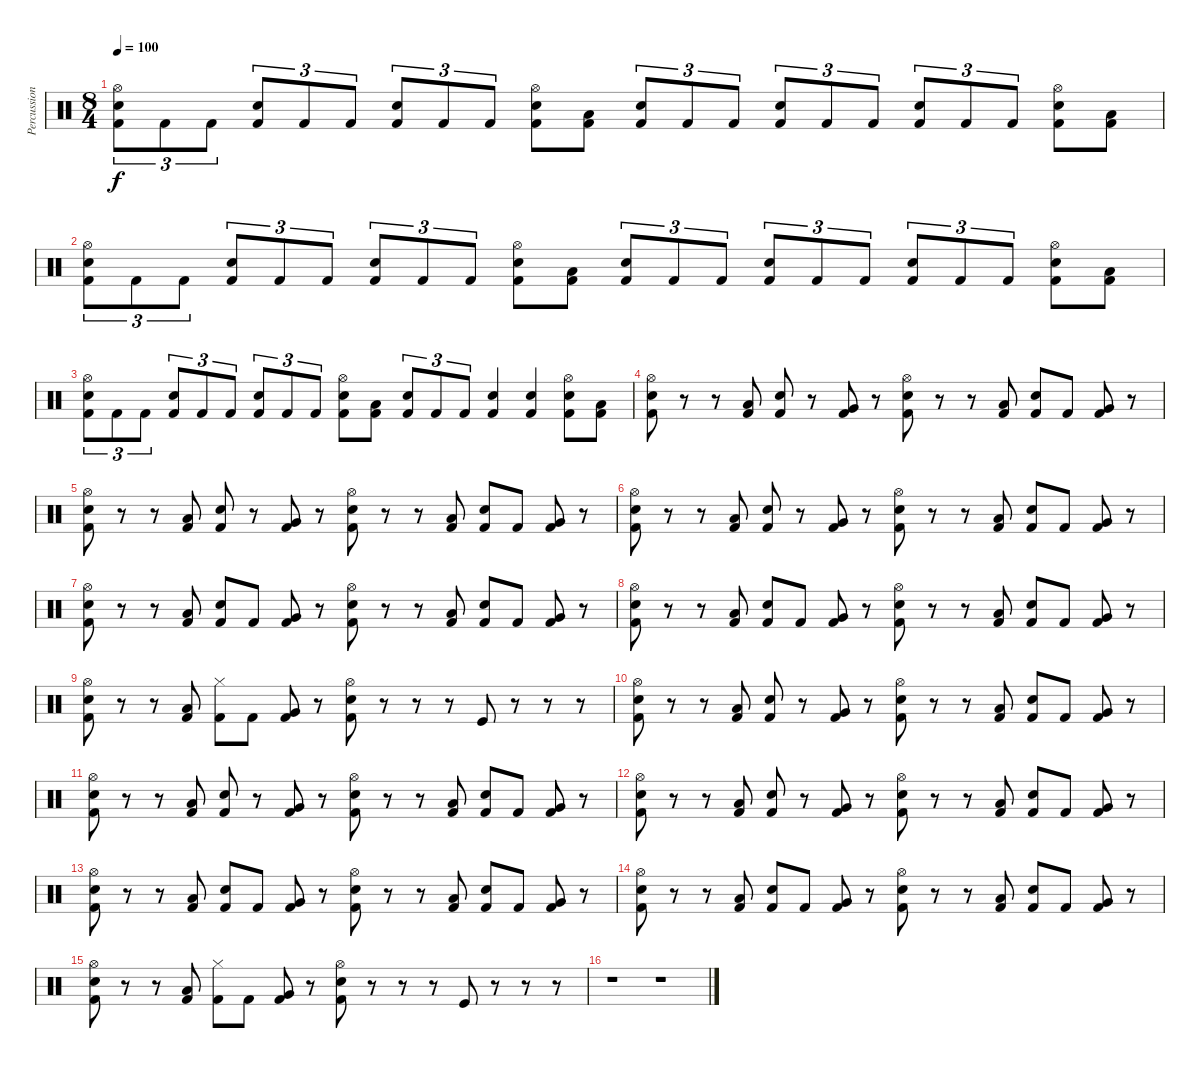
\track ("Percussions" "Percussion") {instrument percussion}
\staff {score}
\articulation defaults
\ts (8 4)
\tempo 100
\clef neutral
\ks c
("Hi-Hat (open)" "Electric Snare (hit)" "Kick (hit) 2").8{tu (3 2) dy f} "Kick (hit) 2".8{tu (3 2)} "Kick (hit) 2".8{tu (3 2)} ("Electric Snare (hit)" "Kick (hit) 2").8{tu (3 2)} "Kick (hit) 2".8{tu (3 2)} "Kick (hit) 2".8{tu (3 2)} ("Electric Snare (hit)" "Kick (hit) 2").8{tu (3 2)} "Kick (hit) 2".8{tu (3 2)} "Kick (hit) 2".8{tu (3 2)} ("Hi-Hat (open)" "Electric Snare (hit)" "Kick (hit) 2").8 ("Low Floor Tom (hit)" "Kick (hit) 2").8 ("Electric Snare (hit)" "Kick (hit) 2").8{tu (3 2)} "Kick (hit) 2".8{tu (3 2)} "Kick (hit) 2".8{tu (3 2)} ("Electric Snare (hit)" "Kick (hit) 2").8{tu (3 2)} "Kick (hit) 2".8{tu (3 2)} "Kick (hit) 2".8{tu (3 2)} ("Electric Snare (hit)" "Kick (hit) 2").8{tu (3 2)} "Kick (hit) 2".8{tu (3 2)} "Kick (hit) 2".8{tu (3 2)} ("Hi-Hat (open)" "Electric Snare (hit)" "Kick (hit) 2").8 ("Low Floor Tom (hit)" "Kick (hit) 2").8 |
("Hi-Hat (open)" "Electric Snare (hit)" "Kick (hit) 2").8{tu (3 2)} "Kick (hit) 2".8{tu (3 2)} "Kick (hit) 2".8{tu (3 2)} ("Electric Snare (hit)" "Kick (hit) 2").8{tu (3 2)} "Kick (hit) 2".8{tu (3 2)} "Kick (hit) 2".8{tu (3 2)} ("Electric Snare (hit)" "Kick (hit) 2").8{tu (3 2)} "Kick (hit) 2".8{tu (3 2)} "Kick (hit) 2".8{tu (3 2)} ("Hi-Hat (open)" "Electric Snare (hit)" "Kick (hit) 2").8 ("Low Floor Tom (hit)" "Kick (hit) 2").8 ("Electric Snare (hit)" "Kick (hit) 2").8{tu (3 2)} "Kick (hit) 2".8{tu (3 2)} "Kick (hit) 2".8{tu (3 2)} ("Electric Snare (hit)" "Kick (hit) 2").8{tu (3 2)} "Kick (hit) 2".8{tu (3 2)} "Kick (hit) 2".8{tu (3 2)} ("Electric Snare (hit)" "Kick (hit) 2").8{tu (3 2)} "Kick (hit) 2".8{tu (3 2)} "Kick (hit) 2".8{tu (3 2)} ("Hi-Hat (open)" "Electric Snare (hit)" "Kick (hit) 2").8 ("Low Floor Tom (hit)" "Kick (hit) 2").8 |
("Hi-Hat (open)" "Electric Snare (hit)" "Kick (hit) 2").8{tu (3 2)} "Kick (hit) 2".8{tu (3 2)} "Kick (hit) 2".8{tu (3 2)} ("Electric Snare (hit)" "Kick (hit) 2").8{tu (3 2)} "Kick (hit) 2".8{tu (3 2)} "Kick (hit) 2".8{tu (3 2)} ("Electric Snare (hit)" "Kick (hit) 2").8{tu (3 2)} "Kick (hit) 2".8{tu (3 2)} "Kick (hit) 2".8{tu (3 2)} ("Hi-Hat (open)" "Electric Snare (hit)" "Kick (hit) 2").8 ("Low Floor Tom (hit)" "Kick (hit) 2").8 ("Electric Snare (hit)" "Kick (hit) 2").8{tu (3 2)} "Kick (hit) 2".8{tu (3 2)} "Kick (hit) 2".8{tu (3 2)} ("Electric Snare (hit)" "Kick (hit) 2").4 ("Electric Snare (hit)" "Kick (hit) 2").4 ("Hi-Hat (open)" "Electric Snare (hit)" "Kick (hit) 2").8 ("Low Floor Tom (hit)" "Kick (hit) 2").8 |
("Hi-Hat (open)" "Electric Snare (hit)" "Kick (hit) 2").8 r.8 r.8 ("Low Floor Tom (hit)" "Kick (hit) 2").8 ("Electric Snare (hit)" "Kick (hit) 2").8 r.8 ("Very Low Tom (hit)" "Kick (hit) 2").8 r.8 ("Hi-Hat (open)" "Electric Snare (hit)" "Kick (hit) 2").8 r.8 r.8 ("Low Floor Tom (hit)" "Kick (hit) 2").8 ("Electric Snare (hit)" "Kick (hit) 2").8 "Kick (hit) 2".8 ("Very Low Tom (hit)" "Kick (hit) 2").8 r.8 |
("Hi-Hat (open)" "Electric Snare (hit)" "Kick (hit) 2").8 r.8 r.8 ("Low Floor Tom (hit)" "Kick (hit) 2").8 ("Electric Snare (hit)" "Kick (hit) 2").8 r.8 ("Very Low Tom (hit)" "Kick (hit) 2").8 r.8 ("Hi-Hat (open)" "Electric Snare (hit)" "Kick (hit) 2").8 r.8 r.8 ("Low Floor Tom (hit)" "Kick (hit) 2").8 ("Electric Snare (hit)" "Kick (hit) 2").8 "Kick (hit) 2".8 ("Very Low Tom (hit)" "Kick (hit) 2").8 r.8 |
("Hi-Hat (open)" "Electric Snare (hit)" "Kick (hit) 2").8 r.8 r.8 ("Low Floor Tom (hit)" "Kick (hit) 2").8 ("Electric Snare (hit)" "Kick (hit) 2").8 r.8 ("Very Low Tom (hit)" "Kick (hit) 2").8 r.8 ("Hi-Hat (open)" "Electric Snare (hit)" "Kick (hit) 2").8 r.8 r.8 ("Low Floor Tom (hit)" "Kick (hit) 2").8 ("Electric Snare (hit)" "Kick (hit) 2").8 "Kick (hit) 2".8 ("Very Low Tom (hit)" "Kick (hit) 2").8 r.8 |
("Hi-Hat (open)" "Electric Snare (hit)" "Kick (hit) 2").8 r.8 r.8 ("Low Floor Tom (hit)" "Kick (hit) 2").8 ("Electric Snare (hit)" "Kick (hit) 2").8 "Kick (hit) 2".8 ("Very Low Tom (hit)" "Kick (hit) 2").8 r.8 ("Hi-Hat (open)" "Electric Snare (hit)" "Kick (hit) 2").8 r.8 r.8 ("Low Floor Tom (hit)" "Kick (hit) 2").8 ("Electric Snare (hit)" "Kick (hit) 2").8 "Kick (hit) 2".8 ("Very Low Tom (hit)" "Kick (hit) 2").8 r.8 |
("Hi-Hat (open)" "Electric Snare (hit)" "Kick (hit) 2").8 r.8 r.8 ("Low Floor Tom (hit)" "Kick (hit) 2").8 ("Electric Snare (hit)" "Kick (hit) 2").8 "Kick (hit) 2".8 ("Very Low Tom (hit)" "Kick (hit) 2").8 r.8 ("Hi-Hat (open)" "Electric Snare (hit)" "Kick (hit) 2").8 r.8 r.8 ("Low Floor Tom (hit)" "Kick (hit) 2").8 ("Electric Snare (hit)" "Kick (hit) 2").8 "Kick (hit) 2".8 ("Very Low Tom (hit)" "Kick (hit) 2").8 r.8 |
("Hi-Hat (open)" "Electric Snare (hit)" "Kick (hit) 2").8 r.8 r.8 ("Low Floor Tom (hit)" "Kick (hit) 2").8 ("Hi-Hat (closed)" "Kick (hit) 2").8 "Kick (hit) 2".8 ("Very Low Tom (hit)" "Kick (hit) 2").8 r.8 ("Hi-Hat (open)" "Electric Snare (hit)" "Kick (hit) 2").8 r.8 r.8 r.8 "Kick (hit)".8 r.8 r.8 r.8 |
("Hi-Hat (open)" "Electric Snare (hit)" "Kick (hit) 2").8 r.8 r.8 ("Low Floor Tom (hit)" "Kick (hit) 2").8 ("Electric Snare (hit)" "Kick (hit) 2").8 r.8 ("Very Low Tom (hit)" "Kick (hit) 2").8 r.8 ("Hi-Hat (open)" "Electric Snare (hit)" "Kick (hit) 2").8 r.8 r.8 ("Low Floor Tom (hit)" "Kick (hit) 2").8 ("Electric Snare (hit)" "Kick (hit) 2").8 "Kick (hit) 2".8 ("Very Low Tom (hit)" "Kick (hit) 2").8 r.8 |
("Hi-Hat (open)" "Electric Snare (hit)" "Kick (hit) 2").8 r.8 r.8 ("Low Floor Tom (hit)" "Kick (hit) 2").8 ("Electric Snare (hit)" "Kick (hit) 2").8 r.8 ("Very Low Tom (hit)" "Kick (hit) 2").8 r.8 ("Hi-Hat (open)" "Electric Snare (hit)" "Kick (hit) 2").8 r.8 r.8 ("Low Floor Tom (hit)" "Kick (hit) 2").8 ("Electric Snare (hit)" "Kick (hit) 2").8 "Kick (hit) 2".8 ("Very Low Tom (hit)" "Kick (hit) 2").8 r.8 |
("Hi-Hat (open)" "Electric Snare (hit)" "Kick (hit) 2").8 r.8 r.8 ("Low Floor Tom (hit)" "Kick (hit) 2").8 ("Electric Snare (hit)" "Kick (hit) 2").8 r.8 ("Very Low Tom (hit)" "Kick (hit) 2").8 r.8 ("Hi-Hat (open)" "Electric Snare (hit)" "Kick (hit) 2").8 r.8 r.8 ("Low Floor Tom (hit)" "Kick (hit) 2").8 ("Electric Snare (hit)" "Kick (hit) 2").8 "Kick (hit) 2".8 ("Very Low Tom (hit)" "Kick (hit) 2").8 r.8 |
("Hi-Hat (open)" "Electric Snare (hit)" "Kick (hit) 2").8 r.8 r.8 ("Low Floor Tom (hit)" "Kick (hit) 2").8 ("Electric Snare (hit)" "Kick (hit) 2").8 "Kick (hit) 2".8 ("Very Low Tom (hit)" "Kick (hit) 2").8 r.8 ("Hi-Hat (open)" "Electric Snare (hit)" "Kick (hit) 2").8 r.8 r.8 ("Low Floor Tom (hit)" "Kick (hit) 2").8 ("Electric Snare (hit)" "Kick (hit) 2").8 "Kick (hit) 2".8 ("Very Low Tom (hit)" "Kick (hit) 2").8 r.8 |
("Hi-Hat (open)" "Electric Snare (hit)" "Kick (hit) 2").8 r.8 r.8 ("Low Floor Tom (hit)" "Kick (hit) 2").8 ("Electric Snare (hit)" "Kick (hit) 2").8 "Kick (hit) 2".8 ("Very Low Tom (hit)" "Kick (hit) 2").8 r.8 ("Hi-Hat (open)" "Electric Snare (hit)" "Kick (hit) 2").8 r.8 r.8 ("Low Floor Tom (hit)" "Kick (hit) 2").8 ("Electric Snare (hit)" "Kick (hit) 2").8 "Kick (hit) 2".8 ("Very Low Tom (hit)" "Kick (hit) 2").8 r.8 |
("Hi-Hat (open)" "Electric Snare (hit)" "Kick (hit) 2").8 r.8 r.8 ("Low Floor Tom (hit)" "Kick (hit) 2").8 ("Hi-Hat (closed)" "Kick (hit) 2").8 "Kick (hit) 2".8 ("Very Low Tom (hit)" "Kick (hit) 2").8 r.8 ("Hi-Hat (open)" "Electric Snare (hit)" "Kick (hit) 2").8 r.8 r.8 r.8 "Kick (hit)".8 r.8 r.8 r.8 |
r.1 r.1
